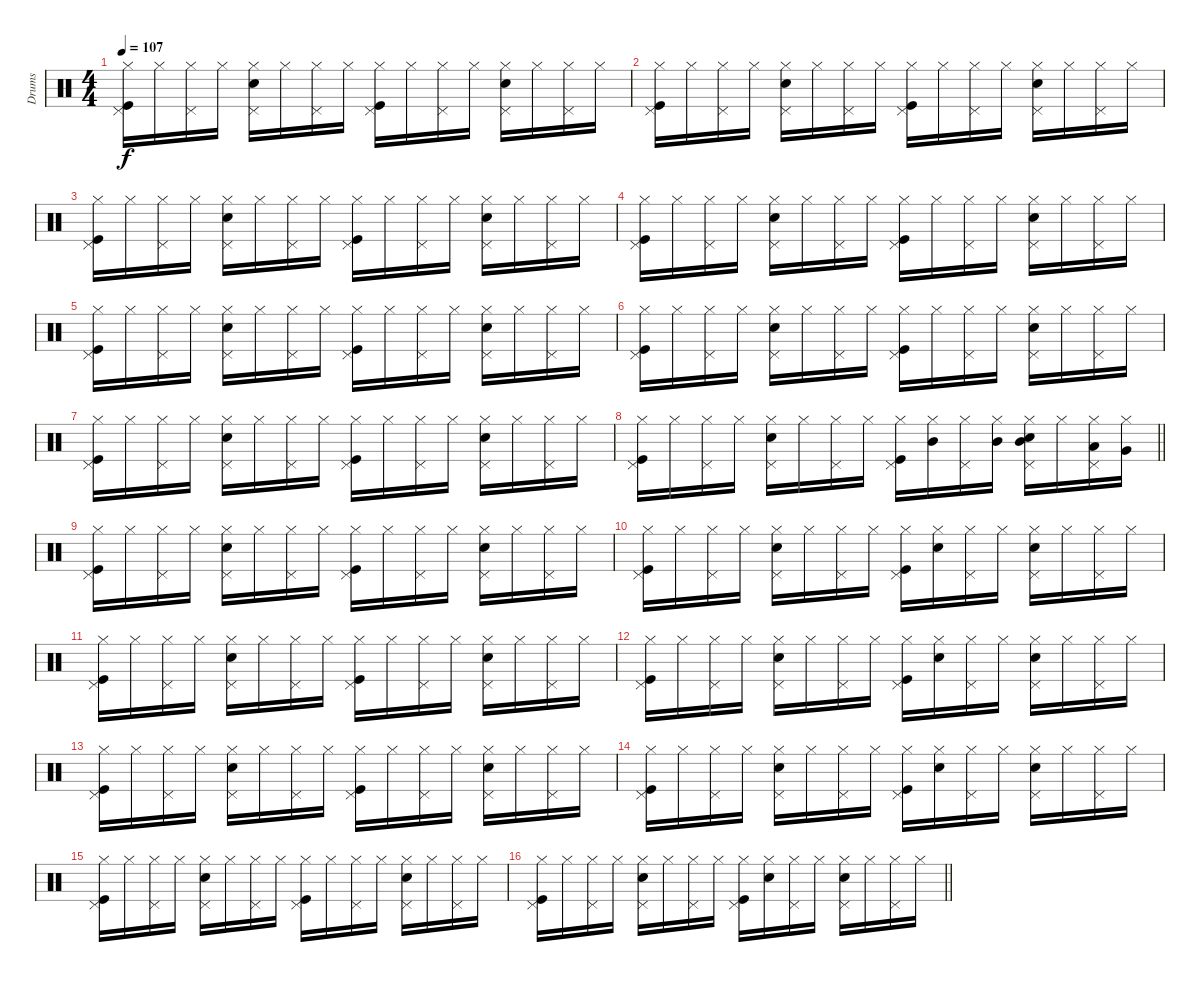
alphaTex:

\track ("Drums" "Drums") {instrument percussion}
\staff {score}
\articulation defaults
\ts (4 4)
\tempo 107
\clef neutral
\ks c
("Kick (hit)" "Pedal Hi-Hat (hit)" "Hi-Hat (closed)").16{dy f} "Hi-Hat (closed)".16 ("Pedal Hi-Hat (hit)" "Hi-Hat (closed)").16 "Hi-Hat (closed)".16 ("Snare (hit) 2" "Pedal Hi-Hat (hit)" "Hi-Hat (closed)").16 "Hi-Hat (closed)".16 ("Pedal Hi-Hat (hit)" "Hi-Hat (closed)").16 "Hi-Hat (closed)".16 ("Kick (hit)" "Pedal Hi-Hat (hit)" "Hi-Hat (closed)").16 "Hi-Hat (closed)".16 ("Pedal Hi-Hat (hit)" "Hi-Hat (closed)").16 "Hi-Hat (closed)".16 ("Snare (hit) 2" "Pedal Hi-Hat (hit)" "Hi-Hat (closed)").16 "Hi-Hat (closed)".16 ("Pedal Hi-Hat (hit)" "Hi-Hat (closed)").16 "Hi-Hat (closed)".16 |
("Kick (hit)" "Pedal Hi-Hat (hit)" "Hi-Hat (closed)").16 "Hi-Hat (closed)".16 ("Pedal Hi-Hat (hit)" "Hi-Hat (closed)").16 "Hi-Hat (closed)".16 ("Snare (hit) 2" "Pedal Hi-Hat (hit)" "Hi-Hat (closed)").16 "Hi-Hat (closed)".16 ("Pedal Hi-Hat (hit)" "Hi-Hat (closed)").16 "Hi-Hat (closed)".16 ("Kick (hit)" "Pedal Hi-Hat (hit)" "Hi-Hat (closed)").16 "Hi-Hat (closed)".16 ("Pedal Hi-Hat (hit)" "Hi-Hat (closed)").16 "Hi-Hat (closed)".16 ("Snare (hit) 2" "Pedal Hi-Hat (hit)" "Hi-Hat (closed)").16 "Hi-Hat (closed)".16 ("Pedal Hi-Hat (hit)" "Hi-Hat (closed)").16 "Hi-Hat (closed)".16 |
("Kick (hit)" "Pedal Hi-Hat (hit)" "Hi-Hat (closed)").16 "Hi-Hat (closed)".16 ("Pedal Hi-Hat (hit)" "Hi-Hat (closed)").16 "Hi-Hat (closed)".16 ("Snare (hit) 2" "Pedal Hi-Hat (hit)" "Hi-Hat (closed)").16 "Hi-Hat (closed)".16 ("Pedal Hi-Hat (hit)" "Hi-Hat (closed)").16 "Hi-Hat (closed)".16 ("Kick (hit)" "Pedal Hi-Hat (hit)" "Hi-Hat (closed)").16 "Hi-Hat (closed)".16 ("Pedal Hi-Hat (hit)" "Hi-Hat (closed)").16 "Hi-Hat (closed)".16 ("Snare (hit) 2" "Pedal Hi-Hat (hit)" "Hi-Hat (closed)").16 "Hi-Hat (closed)".16 ("Pedal Hi-Hat (hit)" "Hi-Hat (closed)").16 "Hi-Hat (closed)".16 |
("Kick (hit)" "Pedal Hi-Hat (hit)" "Hi-Hat (closed)").16 "Hi-Hat (closed)".16 ("Pedal Hi-Hat (hit)" "Hi-Hat (closed)").16 "Hi-Hat (closed)".16 ("Snare (hit) 2" "Pedal Hi-Hat (hit)" "Hi-Hat (closed)").16 "Hi-Hat (closed)".16 ("Pedal Hi-Hat (hit)" "Hi-Hat (closed)").16 "Hi-Hat (closed)".16 ("Kick (hit)" "Pedal Hi-Hat (hit)" "Hi-Hat (closed)").16 "Hi-Hat (closed)".16 ("Pedal Hi-Hat (hit)" "Hi-Hat (closed)").16 "Hi-Hat (closed)".16 ("Snare (hit) 2" "Pedal Hi-Hat (hit)" "Hi-Hat (closed)").16 "Hi-Hat (closed)".16 ("Pedal Hi-Hat (hit)" "Hi-Hat (closed)").16 "Hi-Hat (closed)".16 |
("Kick (hit)" "Pedal Hi-Hat (hit)" "Hi-Hat (closed)").16 "Hi-Hat (closed)".16 ("Pedal Hi-Hat (hit)" "Hi-Hat (closed)").16 "Hi-Hat (closed)".16 ("Snare (hit) 2" "Pedal Hi-Hat (hit)" "Hi-Hat (closed)").16 "Hi-Hat (closed)".16 ("Pedal Hi-Hat (hit)" "Hi-Hat (closed)").16 "Hi-Hat (closed)".16 ("Kick (hit)" "Pedal Hi-Hat (hit)" "Hi-Hat (closed)").16 "Hi-Hat (closed)".16 ("Pedal Hi-Hat (hit)" "Hi-Hat (closed)").16 "Hi-Hat (closed)".16 ("Snare (hit) 2" "Pedal Hi-Hat (hit)" "Hi-Hat (closed)").16 "Hi-Hat (closed)".16 ("Pedal Hi-Hat (hit)" "Hi-Hat (closed)").16 "Hi-Hat (closed)".16 |
("Kick (hit)" "Pedal Hi-Hat (hit)" "Hi-Hat (closed)").16 "Hi-Hat (closed)".16 ("Pedal Hi-Hat (hit)" "Hi-Hat (closed)").16 "Hi-Hat (closed)".16 ("Snare (hit) 2" "Pedal Hi-Hat (hit)" "Hi-Hat (closed)").16 "Hi-Hat (closed)".16 ("Pedal Hi-Hat (hit)" "Hi-Hat (closed)").16 "Hi-Hat (closed)".16 ("Kick (hit)" "Pedal Hi-Hat (hit)" "Hi-Hat (closed)").16 "Hi-Hat (closed)".16 ("Pedal Hi-Hat (hit)" "Hi-Hat (closed)").16 "Hi-Hat (closed)".16 ("Snare (hit) 2" "Pedal Hi-Hat (hit)" "Hi-Hat (closed)").16 "Hi-Hat (closed)".16 ("Pedal Hi-Hat (hit)" "Hi-Hat (closed)").16 "Hi-Hat (closed)".16 |
("Kick (hit)" "Pedal Hi-Hat (hit)" "Hi-Hat (closed)").16 "Hi-Hat (closed)".16 ("Pedal Hi-Hat (hit)" "Hi-Hat (closed)").16 "Hi-Hat (closed)".16 ("Snare (hit) 2" "Pedal Hi-Hat (hit)" "Hi-Hat (closed)").16 "Hi-Hat (closed)".16 ("Pedal Hi-Hat (hit)" "Hi-Hat (closed)").16 "Hi-Hat (closed)".16 ("Kick (hit)" "Pedal Hi-Hat (hit)" "Hi-Hat (closed)").16 "Hi-Hat (closed)".16 ("Pedal Hi-Hat (hit)" "Hi-Hat (closed)").16 "Hi-Hat (closed)".16 ("Snare (hit) 2" "Pedal Hi-Hat (hit)" "Hi-Hat (closed)").16 "Hi-Hat (closed)".16 ("Pedal Hi-Hat (hit)" "Hi-Hat (closed)").16 "Hi-Hat (closed)".16 |
\barLineRight lightlight
("Kick (hit)" "Pedal Hi-Hat (hit)" "Hi-Hat (closed)").16 "Hi-Hat (closed)".16 ("Pedal Hi-Hat (hit)" "Hi-Hat (closed)").16 "Hi-Hat (closed)".16 ("Snare (hit) 2" "Pedal Hi-Hat (hit)" "Hi-Hat (closed)").16 "Hi-Hat (closed)".16 ("Pedal Hi-Hat (hit)" "Hi-Hat (closed)").16 "Hi-Hat (closed)".16 ("Kick (hit)" "Pedal Hi-Hat (hit)" "Hi-Hat (closed)").16 ("Hi-Hat (closed)" "Mid Tom (hit)").16 ("Pedal Hi-Hat (hit)" "Hi-Hat (closed)").16 ("Hi-Hat (closed)" "Mid Tom (hit)").16 ("Snare (hit) 2" "Pedal Hi-Hat (hit)" "Hi-Hat (closed)" "Mid Tom (hit)").16 "Hi-Hat (closed)".16 ("Pedal Hi-Hat (hit)" "Hi-Hat (closed)" "Low Tom (hit)").16 ("Hi-Hat (closed)" "Very Low Tom (hit)").16 |
("Kick (hit)" "Pedal Hi-Hat (hit)" "Hi-Hat (closed)").16 "Hi-Hat (closed)".16 ("Pedal Hi-Hat (hit)" "Hi-Hat (closed)").16 "Hi-Hat (closed)".16 ("Snare (hit) 2" "Pedal Hi-Hat (hit)" "Hi-Hat (closed)").16 "Hi-Hat (closed)".16 ("Pedal Hi-Hat (hit)" "Hi-Hat (closed)").16 "Hi-Hat (closed)".16 ("Kick (hit)" "Pedal Hi-Hat (hit)" "Hi-Hat (closed)").16 "Hi-Hat (closed)".16 ("Pedal Hi-Hat (hit)" "Hi-Hat (closed)").16 "Hi-Hat (closed)".16 ("Snare (hit) 2" "Pedal Hi-Hat (hit)" "Hi-Hat (closed)").16 "Hi-Hat (closed)".16 ("Pedal Hi-Hat (hit)" "Hi-Hat (closed)").16 "Hi-Hat (closed)".16 |
("Kick (hit)" "Pedal Hi-Hat (hit)" "Hi-Hat (closed)").16 "Hi-Hat (closed)".16 ("Pedal Hi-Hat (hit)" "Hi-Hat (closed)").16 "Hi-Hat (closed)".16 ("Snare (hit) 2" "Pedal Hi-Hat (hit)" "Hi-Hat (closed)").16 "Hi-Hat (closed)".16 ("Pedal Hi-Hat (hit)" "Hi-Hat (closed)").16 "Hi-Hat (closed)".16 ("Kick (hit)" "Pedal Hi-Hat (hit)" "Hi-Hat (closed)").16 ("Snare (hit) 2" "Hi-Hat (closed)").16 ("Pedal Hi-Hat (hit)" "Hi-Hat (closed)").16 "Hi-Hat (closed)".16 ("Snare (hit) 2" "Pedal Hi-Hat (hit)" "Hi-Hat (closed)").16 "Hi-Hat (closed)".16 ("Pedal Hi-Hat (hit)" "Hi-Hat (closed)").16 "Hi-Hat (closed)".16 |
("Kick (hit)" "Pedal Hi-Hat (hit)" "Hi-Hat (closed)").16 "Hi-Hat (closed)".16 ("Pedal Hi-Hat (hit)" "Hi-Hat (closed)").16 "Hi-Hat (closed)".16 ("Snare (hit) 2" "Pedal Hi-Hat (hit)" "Hi-Hat (closed)").16 "Hi-Hat (closed)".16 ("Pedal Hi-Hat (hit)" "Hi-Hat (closed)").16 "Hi-Hat (closed)".16 ("Kick (hit)" "Pedal Hi-Hat (hit)" "Hi-Hat (closed)").16 "Hi-Hat (closed)".16 ("Pedal Hi-Hat (hit)" "Hi-Hat (closed)").16 "Hi-Hat (closed)".16 ("Snare (hit) 2" "Pedal Hi-Hat (hit)" "Hi-Hat (closed)").16 "Hi-Hat (closed)".16 ("Pedal Hi-Hat (hit)" "Hi-Hat (closed)").16 "Hi-Hat (closed)".16 |
("Kick (hit)" "Pedal Hi-Hat (hit)" "Hi-Hat (closed)").16 "Hi-Hat (closed)".16 ("Pedal Hi-Hat (hit)" "Hi-Hat (closed)").16 "Hi-Hat (closed)".16 ("Snare (hit) 2" "Pedal Hi-Hat (hit)" "Hi-Hat (closed)").16 "Hi-Hat (closed)".16 ("Pedal Hi-Hat (hit)" "Hi-Hat (closed)").16 "Hi-Hat (closed)".16 ("Kick (hit)" "Pedal Hi-Hat (hit)" "Hi-Hat (closed)").16 ("Snare (hit) 2" "Hi-Hat (closed)").16 ("Pedal Hi-Hat (hit)" "Hi-Hat (closed)").16 "Hi-Hat (closed)".16 ("Snare (hit) 2" "Pedal Hi-Hat (hit)" "Hi-Hat (closed)").16 "Hi-Hat (closed)".16 ("Pedal Hi-Hat (hit)" "Hi-Hat (closed)").16 "Hi-Hat (closed)".16 |
("Kick (hit)" "Pedal Hi-Hat (hit)" "Hi-Hat (closed)").16 "Hi-Hat (closed)".16 ("Pedal Hi-Hat (hit)" "Hi-Hat (closed)").16 "Hi-Hat (closed)".16 ("Snare (hit) 2" "Pedal Hi-Hat (hit)" "Hi-Hat (closed)").16 "Hi-Hat (closed)".16 ("Pedal Hi-Hat (hit)" "Hi-Hat (closed)").16 "Hi-Hat (closed)".16 ("Kick (hit)" "Pedal Hi-Hat (hit)" "Hi-Hat (closed)").16 "Hi-Hat (closed)".16 ("Pedal Hi-Hat (hit)" "Hi-Hat (closed)").16 "Hi-Hat (closed)".16 ("Snare (hit) 2" "Pedal Hi-Hat (hit)" "Hi-Hat (closed)").16 "Hi-Hat (closed)".16 ("Pedal Hi-Hat (hit)" "Hi-Hat (closed)").16 "Hi-Hat (closed)".16 |
("Kick (hit)" "Pedal Hi-Hat (hit)" "Hi-Hat (closed)").16 "Hi-Hat (closed)".16 ("Pedal Hi-Hat (hit)" "Hi-Hat (closed)").16 "Hi-Hat (closed)".16 ("Snare (hit) 2" "Pedal Hi-Hat (hit)" "Hi-Hat (closed)").16 "Hi-Hat (closed)".16 ("Pedal Hi-Hat (hit)" "Hi-Hat (closed)").16 "Hi-Hat (closed)".16 ("Kick (hit)" "Pedal Hi-Hat (hit)" "Hi-Hat (closed)").16 ("Snare (hit) 2" "Hi-Hat (closed)").16 ("Pedal Hi-Hat (hit)" "Hi-Hat (closed)").16 "Hi-Hat (closed)".16 ("Snare (hit) 2" "Pedal Hi-Hat (hit)" "Hi-Hat (closed)").16 "Hi-Hat (closed)".16 ("Pedal Hi-Hat (hit)" "Hi-Hat (closed)").16 "Hi-Hat (closed)".16 |
("Kick (hit)" "Pedal Hi-Hat (hit)" "Hi-Hat (closed)").16 "Hi-Hat (closed)".16 ("Pedal Hi-Hat (hit)" "Hi-Hat (closed)").16 "Hi-Hat (closed)".16 ("Snare (hit) 2" "Pedal Hi-Hat (hit)" "Hi-Hat (closed)").16 "Hi-Hat (closed)".16 ("Pedal Hi-Hat (hit)" "Hi-Hat (closed)").16 "Hi-Hat (closed)".16 ("Kick (hit)" "Pedal Hi-Hat (hit)" "Hi-Hat (closed)").16 "Hi-Hat (closed)".16 ("Pedal Hi-Hat (hit)" "Hi-Hat (closed)").16 "Hi-Hat (closed)".16 ("Snare (hit) 2" "Pedal Hi-Hat (hit)" "Hi-Hat (closed)").16 "Hi-Hat (closed)".16 ("Pedal Hi-Hat (hit)" "Hi-Hat (closed)").16 "Hi-Hat (closed)".16 |
\barLineRight lightlight
("Kick (hit)" "Pedal Hi-Hat (hit)" "Hi-Hat (closed)").16 "Hi-Hat (closed)".16 ("Pedal Hi-Hat (hit)" "Hi-Hat (closed)").16 "Hi-Hat (closed)".16 ("Snare (hit) 2" "Pedal Hi-Hat (hit)" "Hi-Hat (closed)").16 "Hi-Hat (closed)".16 ("Pedal Hi-Hat (hit)" "Hi-Hat (closed)").16 "Hi-Hat (closed)".16 ("Kick (hit)" "Pedal Hi-Hat (hit)" "Hi-Hat (closed)").16 ("Snare (hit) 2" "Hi-Hat (closed)").16 ("Pedal Hi-Hat (hit)" "Hi-Hat (closed)").16 "Hi-Hat (closed)".16 ("Snare (hit) 2" "Pedal Hi-Hat (hit)" "Hi-Hat (closed)").16 "Hi-Hat (closed)".16 ("Pedal Hi-Hat (hit)" "Hi-Hat (closed)").16 "Hi-Hat (closed)".16
